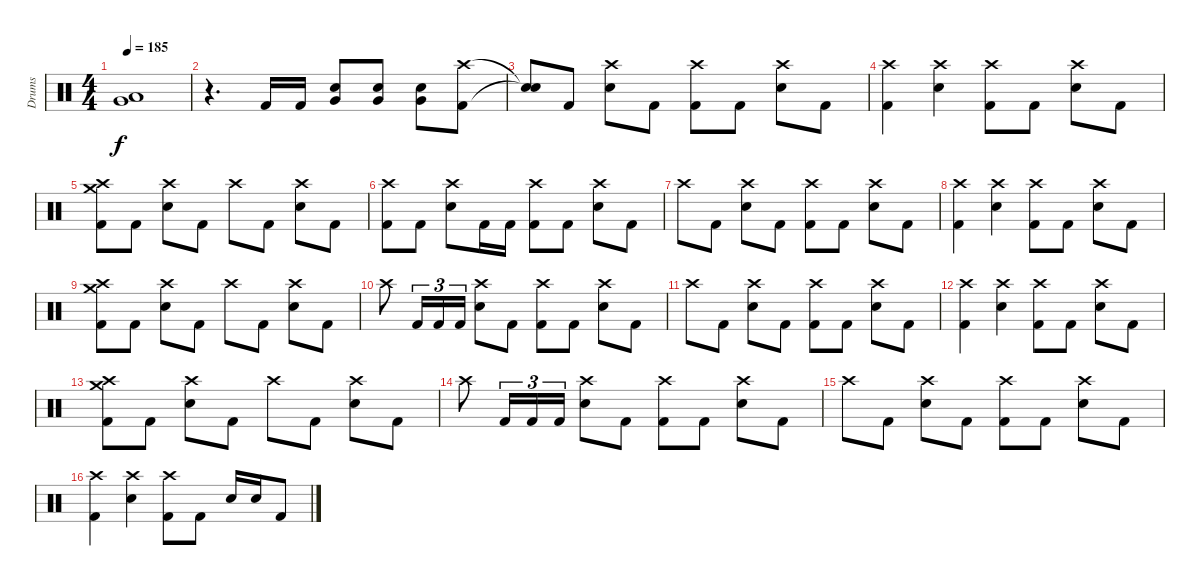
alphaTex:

\track ("Drums" "Drums") {instrument percussion}
\staff {score}
\articulation defaults
\ts (4 4)
\tempo 185
\clef neutral
\ks c
("Very Low Tom (hit)" "Low Tom (hit)").1{dy f} |
r.4{d} "Kick (hit) 2".16 "Kick (hit) 2".16 ("Very Low Tom (hit)" "Electric Snare (hit)").8 ("Very Low Tom (hit)" "Electric Snare (hit)").8 ("Very Low Tom (hit)" "Electric Snare (hit)").8 ("Crash high (hit)" "Kick (hit) 2").8 |
("Snare (hit)"{t} "Snare (hit)"{t}).8 "Kick (hit) 2".8 ("Crash high (hit)" "Electric Snare (hit)").8 "Kick (hit) 2".8 ("Crash high (hit)" "Kick (hit) 2").8 "Kick (hit) 2".8 ("Crash high (hit)" "Electric Snare (hit)").8 "Kick (hit) 2".8 |
("Crash high (hit)" "Kick (hit) 2").4 ("Crash high (hit)" "Electric Snare (hit)").4 ("Crash high (hit)" "Kick (hit) 2").8 "Kick (hit) 2".8 ("Crash high (hit)" "Electric Snare (hit)").8 "Kick (hit) 2".8 |
("Crash high (hit)" "Crash medium (hit)" "Kick (hit) 2").8 "Kick (hit) 2".8 ("Crash high (hit)" "Electric Snare (hit)").8 "Kick (hit) 2".8 "Crash high (hit)".8 "Kick (hit) 2".8 ("Crash high (hit)" "Electric Snare (hit)").8 "Kick (hit) 2".8 |
("Crash high (hit)" "Kick (hit) 2").8 "Kick (hit) 2".8 ("Crash high (hit)" "Electric Snare (hit)").8 "Kick (hit) 2".16 "Kick (hit) 2".16 ("Crash high (hit)" "Kick (hit) 2").8 "Kick (hit) 2".8 ("Crash high (hit)" "Electric Snare (hit)").8 "Kick (hit) 2".8 |
"Crash high (hit)".8 "Kick (hit) 2".8 ("Crash high (hit)" "Electric Snare (hit)").8 "Kick (hit) 2".8 ("Crash high (hit)" "Kick (hit) 2").8 "Kick (hit) 2".8 ("Crash high (hit)" "Electric Snare (hit)").8 "Kick (hit) 2".8 |
("Crash high (hit)" "Kick (hit) 2").4 ("Crash high (hit)" "Electric Snare (hit)").4 ("Crash high (hit)" "Kick (hit) 2").8 "Kick (hit) 2".8 ("Crash high (hit)" "Electric Snare (hit)").8 "Kick (hit) 2".8 |
("Crash high (hit)" "Crash medium (hit)" "Kick (hit) 2").8 "Kick (hit) 2".8 ("Crash high (hit)" "Electric Snare (hit)").8 "Kick (hit) 2".8 "Crash high (hit)".8 "Kick (hit) 2".8 ("Crash high (hit)" "Electric Snare (hit)").8 "Kick (hit) 2".8 |
"Crash high (hit)".8 "Kick (hit) 2".16{tu (3 2)} "Kick (hit) 2".16{tu (3 2)} "Kick (hit) 2".16{tu (3 2)} ("Crash high (hit)" "Electric Snare (hit)").8 "Kick (hit) 2".8 ("Crash high (hit)" "Kick (hit) 2").8 "Kick (hit) 2".8 ("Crash high (hit)" "Electric Snare (hit)").8 "Kick (hit) 2".8 |
"Crash high (hit)".8 "Kick (hit) 2".8 ("Crash high (hit)" "Electric Snare (hit)").8 "Kick (hit) 2".8 ("Crash high (hit)" "Kick (hit) 2").8 "Kick (hit) 2".8 ("Crash high (hit)" "Electric Snare (hit)").8 "Kick (hit) 2".8 |
("Crash high (hit)" "Kick (hit) 2").4 ("Crash high (hit)" "Electric Snare (hit)").4 ("Crash high (hit)" "Kick (hit) 2").8 "Kick (hit) 2".8 ("Crash high (hit)" "Electric Snare (hit)").8 "Kick (hit) 2".8 |
("Crash high (hit)" "Crash medium (hit)" "Kick (hit) 2").8 "Kick (hit) 2".8 ("Crash high (hit)" "Electric Snare (hit)").8 "Kick (hit) 2".8 "Crash high (hit)".8 "Kick (hit) 2".8 ("Crash high (hit)" "Electric Snare (hit)").8 "Kick (hit) 2".8 |
"Crash high (hit)".8 "Kick (hit) 2".16{tu (3 2)} "Kick (hit) 2".16{tu (3 2)} "Kick (hit) 2".16{tu (3 2)} ("Crash high (hit)" "Electric Snare (hit)").8 "Kick (hit) 2".8 ("Crash high (hit)" "Kick (hit) 2").8 "Kick (hit) 2".8 ("Crash high (hit)" "Electric Snare (hit)").8 "Kick (hit) 2".8 |
"Crash high (hit)".8 "Kick (hit) 2".8 ("Crash high (hit)" "Electric Snare (hit)").8 "Kick (hit) 2".8 ("Crash high (hit)" "Kick (hit) 2").8 "Kick (hit) 2".8 ("Crash high (hit)" "Electric Snare (hit)").8 "Kick (hit) 2".8 |
("Crash high (hit)" "Kick (hit) 2").4 ("Crash high (hit)" "Electric Snare (hit)").4 ("Crash high (hit)" "Kick (hit) 2").8 "Kick (hit) 2".8 "Electric Snare (hit)".16 "Electric Snare (hit)".16 "Kick (hit) 2".8
